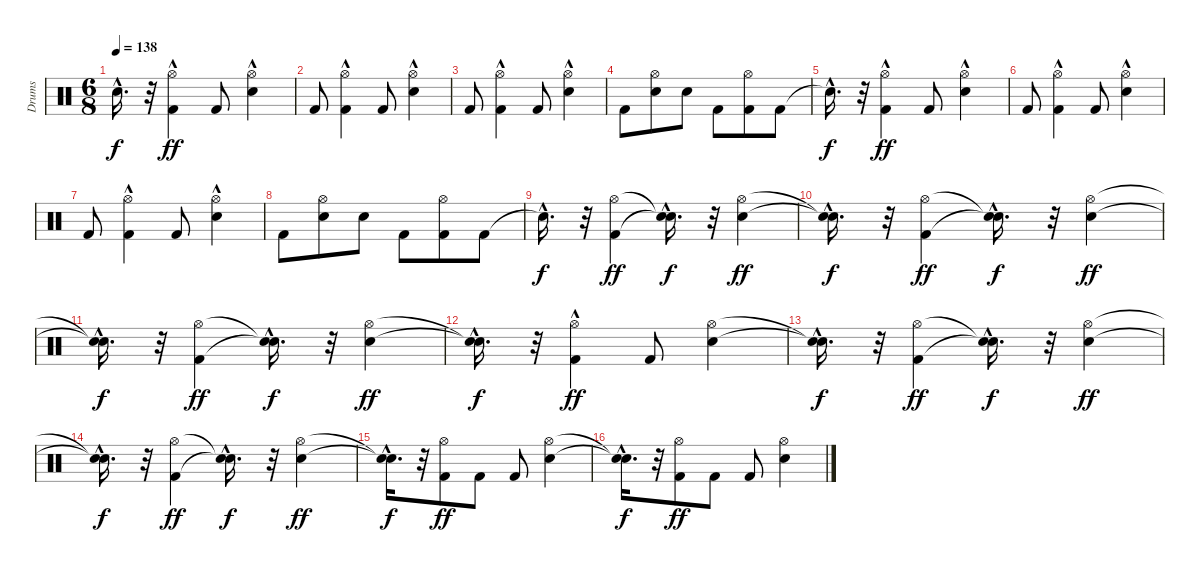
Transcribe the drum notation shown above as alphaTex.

\track ("Drums" "Drums") {instrument percussion}
\staff {score}
\articulation defaults
\ts (6 8)
\tempo 138
\clef neutral
\ks c "Snare (hit)"{hac t}.16{d dy f}
r.32 ("Kick (hit) 2"{hac} "Hi-Hat (open)").4{dy ff} "Kick (hit) 2".8 ("Snare (hit) 2"{hac} "Hi-Hat (open)").4 |
"Kick (hit) 2".8 ("Kick (hit) 2"{hac} "Hi-Hat (open)").4 "Kick (hit) 2".8 ("Snare (hit) 2"{hac} "Hi-Hat (open)").4 |
"Kick (hit) 2".8 ("Kick (hit) 2"{hac} "Hi-Hat (open)").4 "Kick (hit) 2".8 ("Snare (hit) 2"{hac} "Hi-Hat (open)").4 |
"Kick (hit) 2".8 ("Snare (hit) 2" "Hi-Hat (open)").8 "Snare (hit) 2".8 "Kick (hit) 2".8 ("Kick (hit) 2" "Hi-Hat (open)").8 "Kick (hit) 2".8 |
"Snare (hit)"{hac t}.16{d dy f} r.32 ("Kick (hit) 2"{hac} "Hi-Hat (open)").4{dy ff} "Kick (hit) 2".8 ("Snare (hit) 2"{hac} "Hi-Hat (open)").4 |
"Kick (hit) 2".8 ("Kick (hit) 2"{hac} "Hi-Hat (open)").4 "Kick (hit) 2".8 ("Snare (hit) 2"{hac} "Hi-Hat (open)").4 |
"Kick (hit) 2".8 ("Kick (hit) 2"{hac} "Hi-Hat (open)").4 "Kick (hit) 2".8 ("Snare (hit) 2"{hac} "Hi-Hat (open)").4 |
"Kick (hit) 2".8 ("Snare (hit) 2" "Hi-Hat (open)").8 "Snare (hit) 2".8 "Kick (hit) 2".8 ("Kick (hit) 2" "Hi-Hat (open)").8 "Kick (hit) 2".8 |
"Snare (hit)"{hac t}.16{d dy f} r.32 ("Kick (hit) 2" "Hi-Hat (open)").4{dy ff} ("Snare (hit)"{hac t} "Snare (hit)"{hac t}).16{d dy f} r.32 ("Snare (hit) 2" "Hi-Hat (open)").4{dy ff} |
("Snare (hit)"{hac t} "Snare (hit)"{hac t}).16{d dy f} r.32 ("Kick (hit) 2" "Hi-Hat (open)").4{dy ff} ("Snare (hit)"{hac t} "Snare (hit)"{hac t}).16{d dy f} r.32 ("Snare (hit) 2" "Hi-Hat (open)").4{dy ff} |
("Snare (hit)"{hac t} "Snare (hit)"{hac t}).16{d dy f} r.32 ("Kick (hit) 2" "Hi-Hat (open)").4{dy ff} ("Snare (hit)"{hac t} "Snare (hit)"{hac t}).16{d dy f} r.32 ("Snare (hit) 2" "Hi-Hat (open)").4{dy ff} |
("Snare (hit)"{hac t} "Snare (hit)"{hac t}).16{d dy f} r.32 ("Kick (hit) 2"{hac} "Hi-Hat (open)").4{dy ff} "Kick (hit) 2".8 ("Snare (hit) 2" "Hi-Hat (open)").4 |
("Snare (hit)"{hac t} "Snare (hit)"{hac t}).16{d dy f} r.32 ("Kick (hit) 2" "Hi-Hat (open)").4{dy ff} ("Snare (hit)"{hac t} "Snare (hit)"{hac t}).16{d dy f} r.32 ("Snare (hit) 2" "Hi-Hat (open)").4{dy ff} |
("Snare (hit)"{hac t} "Snare (hit)"{hac t}).16{d dy f} r.32 ("Kick (hit) 2" "Hi-Hat (open)").4{dy ff} ("Snare (hit)"{hac t} "Snare (hit)"{hac t}).16{d dy f} r.32 ("Snare (hit) 2" "Hi-Hat (open)").4{dy ff} |
("Snare (hit)"{hac t} "Snare (hit)"{hac t}).16{d dy f} r.32 ("Kick (hit) 2" "Hi-Hat (open)").8{dy ff} "Kick (hit) 2".8 "Kick (hit) 2".8 ("Snare (hit) 2" "Hi-Hat (open)").4 |
("Snare (hit)"{hac t} "Snare (hit)"{hac t}).16{d dy f} r.32 ("Kick (hit) 2" "Hi-Hat (open)").8{dy ff} "Kick (hit) 2".8 "Kick (hit) 2".8 ("Snare (hit) 2" "Hi-Hat (open)").4
